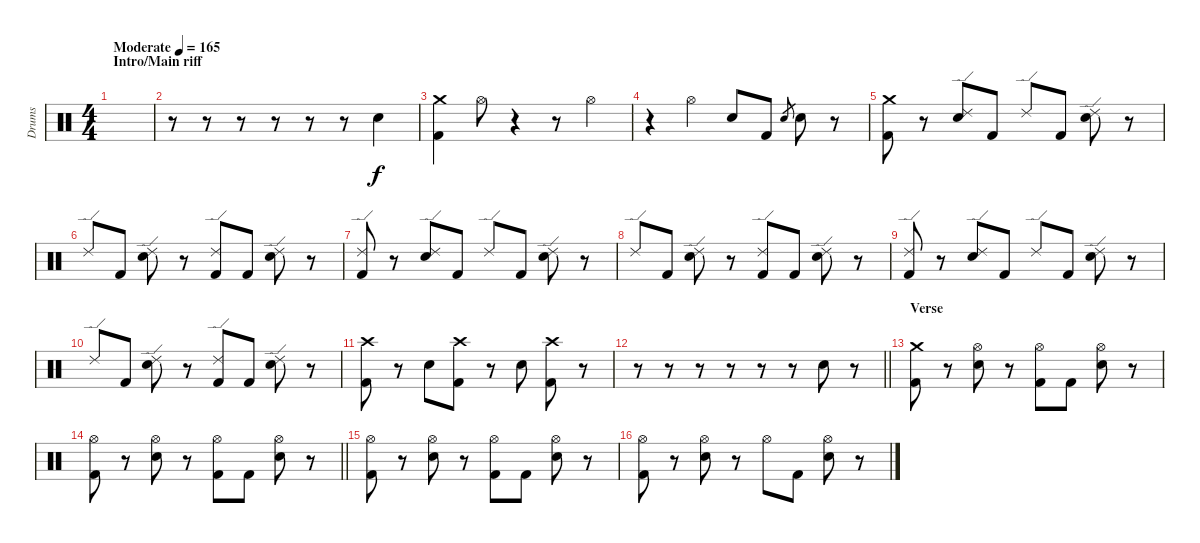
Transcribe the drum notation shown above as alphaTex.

\track ("Drums" "Drums") {instrument percussion}
\staff {score}
\articulation defaults
\ts (4 4)
\section ("" "Intro/Main riff")
\tempo (165 "Moderate")
\clef neutral
\ks c
|
r.8 r.8 r.8 r.8 r.8 r.8 "Electric Snare (hit)".4 |
("Crash medium (hit)" "Kick (hit) 2").4 "Hi-Hat (open)".8 r.4 r.8 "Hi-Hat (open)".4 |
r.4 "Hi-Hat (open)".4 "Electric Snare (hit)".8 "Kick (hit) 2".8 "Electric Snare (hit)".8{gr} "Electric Snare (hit)".8 r.8 |
("Crash medium (hit)" "Kick (hit) 2").8 r.8 ("Ride (edge) 2" "Electric Snare (hit)").8 "Kick (hit) 2".8 "Ride (edge) 2".8 "Kick (hit) 2".8 ("Ride (edge) 2" "Electric Snare (hit)").8 r.8 |
"Ride (edge) 2".8 "Kick (hit) 2".8 ("Ride (edge) 2" "Electric Snare (hit)").8 r.8 ("Ride (edge) 2" "Kick (hit) 2").8 "Kick (hit) 2".8 ("Ride (edge) 2" "Electric Snare (hit)").8 r.8 |
("Ride (edge) 2" "Kick (hit) 2").8 r.8 ("Ride (edge) 2" "Electric Snare (hit)").8 "Kick (hit) 2".8 "Ride (edge) 2".8 "Kick (hit) 2".8 ("Ride (edge) 2" "Electric Snare (hit)").8 r.8 |
"Ride (edge) 2".8 "Kick (hit) 2".8 ("Ride (edge) 2" "Electric Snare (hit)").8 r.8 ("Ride (edge) 2" "Kick (hit) 2").8 "Kick (hit) 2".8 ("Ride (edge) 2" "Electric Snare (hit)").8 r.8 |
("Ride (edge) 2" "Kick (hit) 2").8 r.8 ("Ride (edge) 2" "Electric Snare (hit)").8 "Kick (hit) 2".8 "Ride (edge) 2".8 "Kick (hit) 2".8 ("Ride (edge) 2" "Electric Snare (hit)").8 r.8 |
"Ride (edge) 2".8 "Kick (hit) 2".8 ("Ride (edge) 2" "Electric Snare (hit)").8 r.8 ("Ride (edge) 2" "Kick (hit) 2").8 "Kick (hit) 2".8 ("Ride (edge) 2" "Electric Snare (hit)").8 r.8 |
("Crash high (hit)" "Kick (hit) 2").8 r.8 "Electric Snare (hit)".8 ("Kick (hit) 2" "Crash high (hit)").8 r.8 "Electric Snare (hit)".8 ("Crash high (hit)" "Kick (hit) 2").8 r.8 |
\barLineRight lightlight
r.8 r.8 r.8 r.8 r.8 r.8 "Electric Snare (hit)".8 r.8 |
\section ("" "Verse ")
("Crash medium (hit)" "Kick (hit) 2").8 r.8 ("Hi-Hat (open)" "Electric Snare (hit)").8 r.8 ("Hi-Hat (open)" "Kick (hit) 2").8 "Kick (hit) 2".8 ("Hi-Hat (open)" "Electric Snare (hit)").8 r.8 |
\barLineRight lightlight
("Hi-Hat (open)" "Kick (hit) 2").8 r.8 ("Hi-Hat (open)" "Electric Snare (hit)").8 r.8 ("Hi-Hat (open)" "Kick (hit) 2").8 "Kick (hit) 2".8 ("Hi-Hat (open)" "Electric Snare (hit)").8 r.8 |
("Hi-Hat (open)" "Kick (hit) 2").8 r.8 ("Hi-Hat (open)" "Electric Snare (hit)").8 r.8 ("Hi-Hat (open)" "Kick (hit) 2").8 "Kick (hit) 2".8 ("Hi-Hat (open)" "Electric Snare (hit)").8 r.8 |
("Hi-Hat (open)" "Kick (hit) 2").8 r.8 ("Hi-Hat (open)" "Electric Snare (hit)").8 r.8 "Hi-Hat (open)".8 "Kick (hit) 2".8 ("Hi-Hat (open)" "Electric Snare (hit)").8 r.8
